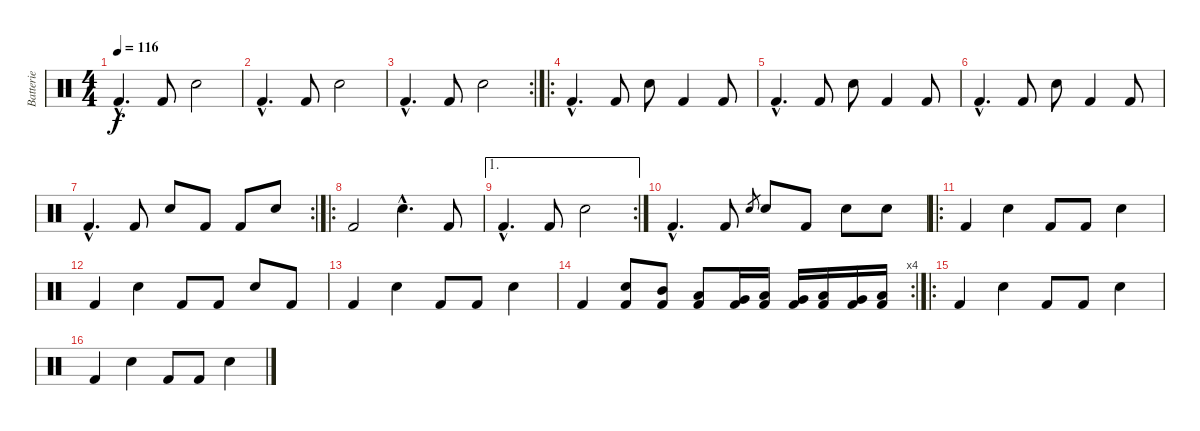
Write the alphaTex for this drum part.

\track ("Batterie" "Batterie") {instrument percussion}
\staff {score}
\articulation defaults
\ts (4 4)
\tempo 116
\clef neutral
\ks c "Kick (hit) 2"{hac}.4{d dy f} "Kick (hit) 2".8 "Snare (hit) 2".2
|
"Kick (hit) 2"{hac}.4{d} "Kick (hit) 2".8 "Snare (hit) 2".2 |
\rc 2 "Kick (hit) 2"{hac}.4{d} "Kick (hit) 2".8 "Snare (hit) 2".2
|
\ro "Kick (hit) 2"{hac}.4{d} "Kick (hit) 2".8 "Snare (hit) 2".8 "Kick (hit) 2".4 "Kick (hit) 2".8
|
"Kick (hit) 2"{hac}.4{d} "Kick (hit) 2".8 "Snare (hit) 2".8 "Kick (hit) 2".4 "Kick (hit) 2".8 |
"Kick (hit) 2"{hac}.4{d} "Kick (hit) 2".8 "Snare (hit) 2".8 "Kick (hit) 2".4 "Kick (hit) 2".8 |
\rc 2 "Kick (hit) 2"{hac}.4{d} "Kick (hit) 2".8 "Snare (hit) 2".8 "Kick (hit) 2".8 "Kick (hit) 2".8 "Snare (hit) 2".8
|
\ro "Kick (hit) 2".2 "Snare (hit) 2"{hac}.4{d} "Kick (hit) 2".8
|
\ae 1
\rc 2 "Kick (hit) 2"{hac}.4{d} "Kick (hit) 2".8 "Snare (hit) 2".2
|
"Kick (hit) 2"{hac}.4{d} "Kick (hit) 2".8 "Snare (hit) 2".8{gr} "Snare (hit) 2".8 "Kick (hit) 2".8 "Snare (hit) 2".8 "Snare (hit) 2".8 |
\ro "Kick (hit) 2".4 "Snare (hit) 2".4 "Kick (hit) 2".8 "Kick (hit) 2".8 "Snare (hit) 2".4
|
"Kick (hit) 2".4 "Snare (hit) 2".4 "Kick (hit) 2".8 "Kick (hit) 2".8 "Snare (hit) 2".8 "Kick (hit) 2".8 |
"Kick (hit) 2".4 "Snare (hit) 2".4 "Kick (hit) 2".8 "Kick (hit) 2".8 "Snare (hit) 2".4 |
\rc 4 "Kick (hit) 2".4
("Snare (hit) 2" "Kick (hit) 2").8 ("Mid Tom (hit)" "Kick (hit) 2").8 ("Low Tom (hit)" "Kick (hit) 2").8 ("Very Low Tom (hit)" "Kick (hit) 2").16 ("Low Tom (hit)" "Kick (hit) 2").16 ("Very Low Tom (hit)" "Kick (hit) 2").16 ("Low Floor Tom (hit)" "Kick (hit) 2").16 ("Very Low Tom (hit)" "Kick (hit) 2").16 ("Low Floor Tom (hit)" "Kick (hit) 2").16 |
\ro "Kick (hit) 2".4 "Snare (hit) 2".4 "Kick (hit) 2".8 "Kick (hit) 2".8 "Snare (hit) 2".4
|
"Kick (hit) 2".4 "Snare (hit) 2".4 "Kick (hit) 2".8 "Kick (hit) 2".8 "Snare (hit) 2".4
